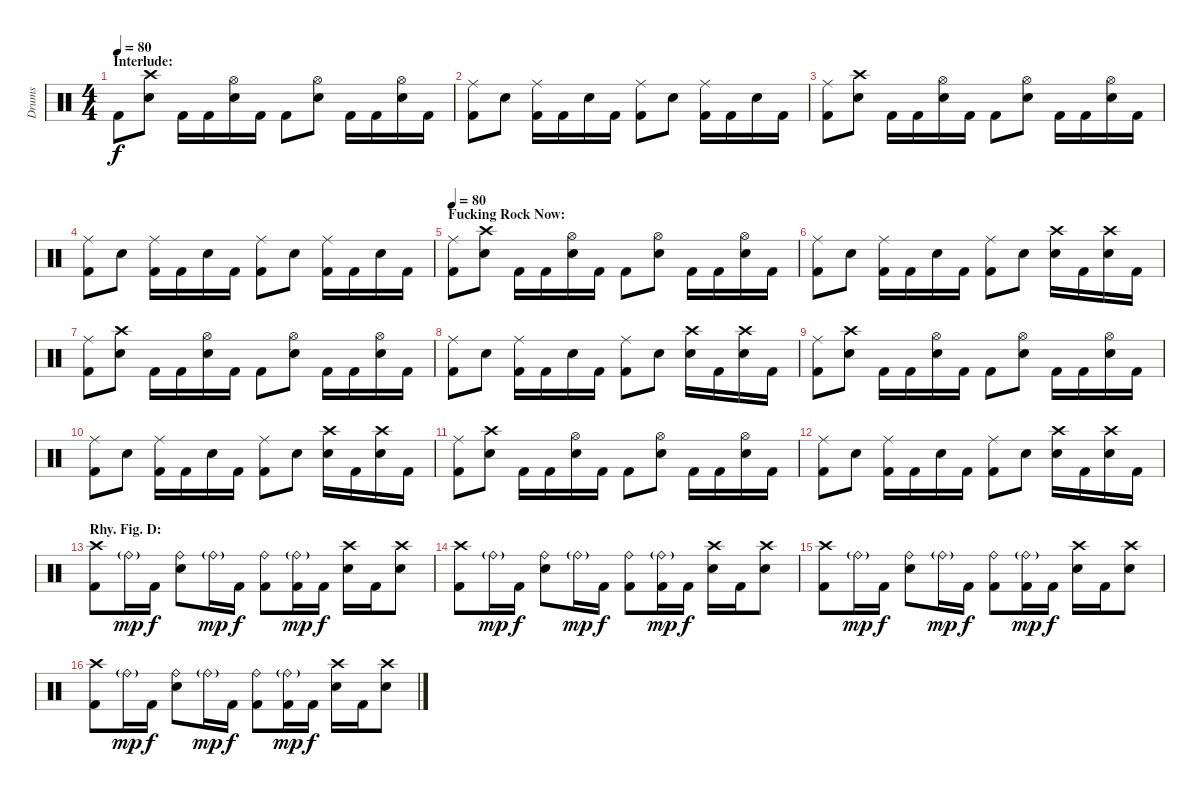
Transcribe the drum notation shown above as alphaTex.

\track ("Drums" "Drums") {instrument percussion}
\staff {score}
\articulation defaults
\ts (4 4)
\section ("" "Interlude:")
\tempo 80
\clef neutral
\ks c "Kick (hit) 2".8{dy f}
("Crash high (hit)" "Electric Snare (hit)").8 "Kick (hit) 2".16 "Kick (hit) 2".16 ("Hi-Hat (open)" "Electric Snare (hit)").16 "Kick (hit) 2".16 "Kick (hit) 2".8 ("Hi-Hat (open)" "Electric Snare (hit)").8 "Kick (hit) 2".16 "Kick (hit) 2".16 ("Hi-Hat (open)" "Electric Snare (hit)").16 "Kick (hit) 2".16 |
("Ride (middle)" "Kick (hit) 2").8 "Electric Snare (hit)".8 ("Ride (middle)" "Kick (hit) 2").16 "Kick (hit) 2".16 "Electric Snare (hit)".16 "Kick (hit) 2".16 ("Ride (middle)" "Kick (hit) 2").8 "Electric Snare (hit)".8 ("Ride (middle)" "Kick (hit) 2").16 "Kick (hit) 2".16 "Electric Snare (hit)".16 "Kick (hit) 2".16 |
("Ride (middle)" "Kick (hit) 2").8 ("Crash high (hit)" "Electric Snare (hit)").8 "Kick (hit) 2".16 "Kick (hit) 2".16 ("Hi-Hat (open)" "Electric Snare (hit)").16 "Kick (hit) 2".16 "Kick (hit) 2".8 ("Hi-Hat (open)" "Electric Snare (hit)").8 "Kick (hit) 2".16 "Kick (hit) 2".16 ("Hi-Hat (open)" "Electric Snare (hit)").16 "Kick (hit) 2".16 |
("Ride (middle)" "Kick (hit) 2").8 "Electric Snare (hit)".8 ("Ride (middle)" "Kick (hit) 2").16 "Kick (hit) 2".16 "Electric Snare (hit)".16 "Kick (hit) 2".16 ("Ride (middle)" "Kick (hit) 2").8 "Electric Snare (hit)".8 ("Ride (middle)" "Kick (hit) 2").16 "Kick (hit) 2".16 "Electric Snare (hit)".16 "Kick (hit) 2".16 |
\section ("" "Fucking Rock Now:")
\tempo 80
("Ride (middle)" "Kick (hit) 2").8 ("Crash high (hit)" "Electric Snare (hit)").8 "Kick (hit) 2".16 "Kick (hit) 2".16 ("Hi-Hat (open)" "Electric Snare (hit)").16 "Kick (hit) 2".16 "Kick (hit) 2".8 ("Hi-Hat (open)" "Electric Snare (hit)").8 "Kick (hit) 2".16 "Kick (hit) 2".16 ("Hi-Hat (open)" "Electric Snare (hit)").16 "Kick (hit) 2".16 |
("Ride (middle)" "Kick (hit) 2").8 "Electric Snare (hit)".8 ("Ride (middle)" "Kick (hit) 2").16 "Kick (hit) 2".16 "Electric Snare (hit)".16 "Kick (hit) 2".16 ("Ride (middle)" "Kick (hit) 2").8 "Electric Snare (hit)".8 ("Crash high (hit)" "Electric Snare (hit)").16 "Kick (hit) 2".16 ("Crash high (hit)" "Electric Snare (hit)").16 "Kick (hit) 2".16 |
("Ride (middle)" "Kick (hit) 2").8 ("Crash high (hit)" "Electric Snare (hit)").8 "Kick (hit) 2".16 "Kick (hit) 2".16 ("Hi-Hat (open)" "Electric Snare (hit)").16 "Kick (hit) 2".16 "Kick (hit) 2".8 ("Hi-Hat (open)" "Electric Snare (hit)").8 "Kick (hit) 2".16 "Kick (hit) 2".16 ("Hi-Hat (open)" "Electric Snare (hit)").16 "Kick (hit) 2".16 |
("Ride (middle)" "Kick (hit) 2").8 "Electric Snare (hit)".8 ("Ride (middle)" "Kick (hit) 2").16 "Kick (hit) 2".16 "Electric Snare (hit)".16 "Kick (hit) 2".16 ("Ride (middle)" "Kick (hit) 2").8 "Electric Snare (hit)".8 ("Crash high (hit)" "Electric Snare (hit)").16 "Kick (hit) 2".16 ("Crash high (hit)" "Electric Snare (hit)").16 "Kick (hit) 2".16 |
("Ride (middle)" "Kick (hit) 2").8 ("Crash high (hit)" "Electric Snare (hit)").8 "Kick (hit) 2".16 "Kick (hit) 2".16 ("Hi-Hat (open)" "Electric Snare (hit)").16 "Kick (hit) 2".16 "Kick (hit) 2".8 ("Hi-Hat (open)" "Electric Snare (hit)").8 "Kick (hit) 2".16 "Kick (hit) 2".16 ("Hi-Hat (open)" "Electric Snare (hit)").16 "Kick (hit) 2".16 |
("Ride (middle)" "Kick (hit) 2").8 "Electric Snare (hit)".8 ("Ride (middle)" "Kick (hit) 2").16 "Kick (hit) 2".16 "Electric Snare (hit)".16 "Kick (hit) 2".16 ("Ride (middle)" "Kick (hit) 2").8 "Electric Snare (hit)".8 ("Crash high (hit)" "Electric Snare (hit)").16 "Kick (hit) 2".16 ("Crash high (hit)" "Electric Snare (hit)").16 "Kick (hit) 2".16 |
("Ride (middle)" "Kick (hit) 2").8 ("Crash high (hit)" "Electric Snare (hit)").8 "Kick (hit) 2".16 "Kick (hit) 2".16 ("Hi-Hat (open)" "Electric Snare (hit)").16 "Kick (hit) 2".16 "Kick (hit) 2".8 ("Hi-Hat (open)" "Electric Snare (hit)").8 "Kick (hit) 2".16 "Kick (hit) 2".16 ("Hi-Hat (open)" "Electric Snare (hit)").16 "Kick (hit) 2".16 |
("Ride (middle)" "Kick (hit) 2").8 "Electric Snare (hit)".8 ("Ride (middle)" "Kick (hit) 2").16 "Kick (hit) 2".16 "Electric Snare (hit)".16 "Kick (hit) 2".16 ("Ride (middle)" "Kick (hit) 2").8 "Electric Snare (hit)".8 ("Crash high (hit)" "Electric Snare (hit)").16 "Kick (hit) 2".16 ("Crash high (hit)" "Electric Snare (hit)").16 "Kick (hit) 2".16 |
\section ("" "Rhy. Fig. D:")
("Crash high (hit)" "Kick (hit) 2").8 "Ride (bell)"{g}.16{dy mp} "Kick (hit) 2".16{dy f} ("Ride (bell)" "Electric Snare (hit)").8 "Ride (bell)"{g}.16{dy mp} "Kick (hit) 2".16{dy f} ("Ride (bell)" "Kick (hit) 2").8 ("Ride (bell)"{g} "Kick (hit) 2").16{dy mp} "Kick (hit) 2".16{dy f} ("Crash high (hit)" "Electric Snare (hit)").16 "Kick (hit) 2".16 ("Crash high (hit)" "Electric Snare (hit)").8 |
("Crash high (hit)" "Kick (hit) 2").8 "Ride (bell)"{g}.16{dy mp} "Kick (hit) 2".16{dy f} ("Ride (bell)" "Electric Snare (hit)").8 "Ride (bell)"{g}.16{dy mp} "Kick (hit) 2".16{dy f} ("Ride (bell)" "Kick (hit) 2").8 ("Ride (bell)"{g} "Kick (hit) 2").16{dy mp} "Kick (hit) 2".16{dy f} ("Crash high (hit)" "Electric Snare (hit)").16 "Kick (hit) 2".16 ("Crash high (hit)" "Electric Snare (hit)").8 |
("Crash high (hit)" "Kick (hit) 2").8 "Ride (bell)"{g}.16{dy mp} "Kick (hit) 2".16{dy f} ("Ride (bell)" "Electric Snare (hit)").8 "Ride (bell)"{g}.16{dy mp} "Kick (hit) 2".16{dy f} ("Ride (bell)" "Kick (hit) 2").8 ("Ride (bell)"{g} "Kick (hit) 2").16{dy mp} "Kick (hit) 2".16{dy f} ("Crash high (hit)" "Electric Snare (hit)").16 "Kick (hit) 2".16 ("Crash high (hit)" "Electric Snare (hit)").8 |
("Crash high (hit)" "Kick (hit) 2").8 "Ride (bell)"{g}.16{dy mp} "Kick (hit) 2".16{dy f} ("Ride (bell)" "Electric Snare (hit)").8 "Ride (bell)"{g}.16{dy mp} "Kick (hit) 2".16{dy f} ("Ride (bell)" "Kick (hit) 2").8 ("Ride (bell)"{g} "Kick (hit) 2").16{dy mp} "Kick (hit) 2".16{dy f} ("Crash high (hit)" "Electric Snare (hit)").16 "Kick (hit) 2".16 ("Crash high (hit)" "Electric Snare (hit)").8
